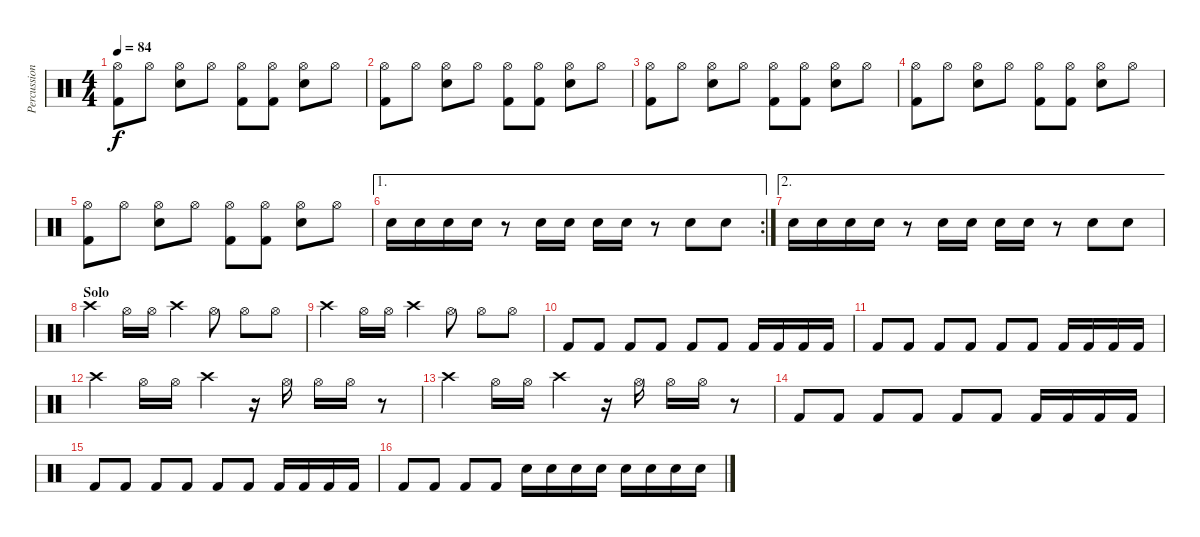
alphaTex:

\track ("Percussion" "Percussion") {instrument percussion}
\staff {score}
\articulation defaults
\ts (4 4)
\tempo 84
\clef neutral
\ks c
("Kick (hit) 2" "Hi-Hat (open)").8{dy f} "Hi-Hat (open)".8 ("Electric Snare (hit)" "Hi-Hat (open)").8 "Hi-Hat (open)".8 ("Kick (hit) 2" "Hi-Hat (open)").8 ("Kick (hit) 2" "Hi-Hat (open)").8 ("Electric Snare (hit)" "Hi-Hat (open)").8 "Hi-Hat (open)".8 |
("Kick (hit) 2" "Hi-Hat (open)").8 "Hi-Hat (open)".8 ("Electric Snare (hit)" "Hi-Hat (open)").8 "Hi-Hat (open)".8 ("Kick (hit) 2" "Hi-Hat (open)").8 ("Kick (hit) 2" "Hi-Hat (open)").8 ("Electric Snare (hit)" "Hi-Hat (open)").8 "Hi-Hat (open)".8 |
("Kick (hit) 2" "Hi-Hat (open)").8 "Hi-Hat (open)".8 ("Electric Snare (hit)" "Hi-Hat (open)").8 "Hi-Hat (open)".8 ("Kick (hit) 2" "Hi-Hat (open)").8 ("Kick (hit) 2" "Hi-Hat (open)").8 ("Electric Snare (hit)" "Hi-Hat (open)").8 "Hi-Hat (open)".8 |
("Kick (hit) 2" "Hi-Hat (open)").8 "Hi-Hat (open)".8 ("Electric Snare (hit)" "Hi-Hat (open)").8 "Hi-Hat (open)".8 ("Kick (hit) 2" "Hi-Hat (open)").8 ("Kick (hit) 2" "Hi-Hat (open)").8 ("Electric Snare (hit)" "Hi-Hat (open)").8 "Hi-Hat (open)".8 |
("Kick (hit) 2" "Hi-Hat (open)").8 "Hi-Hat (open)".8 ("Electric Snare (hit)" "Hi-Hat (open)").8 "Hi-Hat (open)".8 ("Kick (hit) 2" "Hi-Hat (open)").8 ("Kick (hit) 2" "Hi-Hat (open)").8 ("Electric Snare (hit)" "Hi-Hat (open)").8 "Hi-Hat (open)".8 |
\ae 1
\rc 2 "Electric Snare (hit)".16 "Electric Snare (hit)".16 "Electric Snare (hit)".16 "Electric Snare (hit)".16
r.8 "Electric Snare (hit)".16 "Electric Snare (hit)".16 "Electric Snare (hit)".16 "Electric Snare (hit)".16 r.8 "Electric Snare (hit)".8 "Electric Snare (hit)".8 |
\ae 2 "Electric Snare (hit)".16 "Electric Snare (hit)".16 "Electric Snare (hit)".16 "Electric Snare (hit)".16
r.8 "Electric Snare (hit)".16 "Electric Snare (hit)".16 "Electric Snare (hit)".16 "Electric Snare (hit)".16 r.8 "Electric Snare (hit)".8 "Electric Snare (hit)".8 |
\section ("" "Solo")
"Crash high (hit)".4 "Hi-Hat (open)".16 "Hi-Hat (open)".16 "Crash high (hit)".4 "Hi-Hat (open)".8 "Hi-Hat (open)".8 "Hi-Hat (open)".8 |
"Crash high (hit)".4 "Hi-Hat (open)".16 "Hi-Hat (open)".16 "Crash high (hit)".4 "Hi-Hat (open)".8 "Hi-Hat (open)".8 "Hi-Hat (open)".8 |
"Kick (hit) 2".8 "Kick (hit) 2".8 "Kick (hit) 2".8 "Kick (hit) 2".8 "Kick (hit) 2".8 "Kick (hit) 2".8 "Kick (hit) 2".16 "Kick (hit) 2".16 "Kick (hit) 2".16 "Kick (hit) 2".16 |
"Kick (hit) 2".8 "Kick (hit) 2".8 "Kick (hit) 2".8 "Kick (hit) 2".8 "Kick (hit) 2".8 "Kick (hit) 2".8 "Kick (hit) 2".16 "Kick (hit) 2".16 "Kick (hit) 2".16 "Kick (hit) 2".16 |
"Crash high (hit)".4 "Hi-Hat (open)".16 "Hi-Hat (open)".16 "Crash high (hit)".4 r.16 "Hi-Hat (open)".16 "Hi-Hat (open)".16 "Hi-Hat (open)".16 r.8 |
"Crash high (hit)".4 "Hi-Hat (open)".16 "Hi-Hat (open)".16 "Crash high (hit)".4 r.16 "Hi-Hat (open)".16 "Hi-Hat (open)".16 "Hi-Hat (open)".16 r.8 |
"Kick (hit) 2".8 "Kick (hit) 2".8 "Kick (hit) 2".8 "Kick (hit) 2".8 "Kick (hit) 2".8 "Kick (hit) 2".8 "Kick (hit) 2".16 "Kick (hit) 2".16 "Kick (hit) 2".16 "Kick (hit) 2".16 |
"Kick (hit) 2".8 "Kick (hit) 2".8 "Kick (hit) 2".8 "Kick (hit) 2".8 "Kick (hit) 2".8 "Kick (hit) 2".8 "Kick (hit) 2".16 "Kick (hit) 2".16 "Kick (hit) 2".16 "Kick (hit) 2".16 |
"Kick (hit) 2".8 "Kick (hit) 2".8 "Kick (hit) 2".8 "Kick (hit) 2".8 "Electric Snare (hit)".16 "Electric Snare (hit)".16 "Electric Snare (hit)".16 "Electric Snare (hit)".16 "Electric Snare (hit)".16 "Electric Snare (hit)".16 "Electric Snare (hit)".16 "Electric Snare (hit)".16
